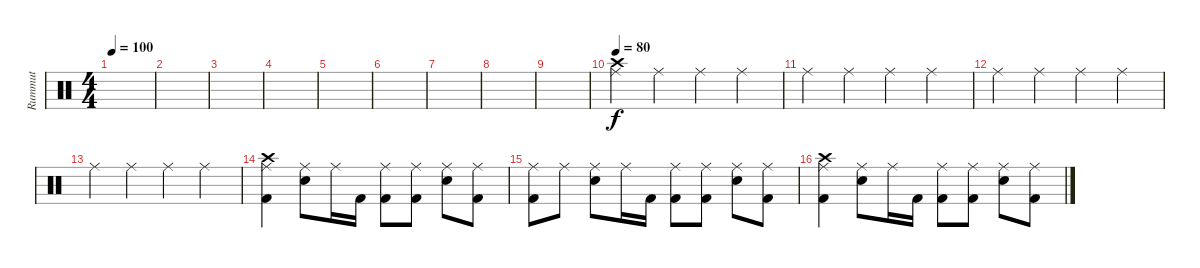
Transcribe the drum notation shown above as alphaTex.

\track ("Rummut" "Rummut") {instrument percussion}
\staff {score}
\articulation defaults
\ts (4 4)
\tempo 100
\clef neutral
\ks c
|
|
|
|
|
|
|
|
|
\tempo 80
("Crash high (hit)" "Ride (middle)").4 "Ride (middle)".4 "Ride (middle)".4 "Ride (middle)".4 |
"Ride (middle)".4 "Ride (middle)".4 "Ride (middle)".4 "Ride (middle)".4 |
"Ride (middle)".4 "Ride (middle)".4 "Ride (middle)".4 "Ride (middle)".4 |
"Ride (middle)".4 "Ride (middle)".4 "Ride (middle)".4 "Ride (middle)".4 |
("Crash high (hit)" "Ride (middle)" "Kick (hit) 2").4 ("Ride (middle)" "Snare (hit) 2").8 "Ride (middle)".16 "Kick (hit) 2".16 ("Ride (middle)" "Kick (hit) 2").8 ("Ride (middle)" "Kick (hit) 2").8 ("Ride (middle)" "Snare (hit) 2").8 ("Ride (middle)" "Kick (hit) 2").8 |
("Ride (middle)" "Kick (hit) 2").8 "Ride (middle)".8 ("Ride (middle)" "Snare (hit) 2").8 "Ride (middle)".16 "Kick (hit) 2".16 ("Ride (middle)" "Kick (hit) 2").8 ("Ride (middle)" "Kick (hit) 2").8 ("Ride (middle)" "Snare (hit) 2").8 ("Ride (middle)" "Kick (hit) 2").8 |
("Crash high (hit)" "Ride (middle)" "Kick (hit) 2").4 ("Ride (middle)" "Snare (hit) 2").8 "Ride (middle)".16 "Kick (hit) 2".16 ("Ride (middle)" "Kick (hit) 2").8 ("Ride (middle)" "Kick (hit) 2").8 ("Ride (middle)" "Snare (hit) 2").8 ("Ride (middle)" "Kick (hit) 2").8
